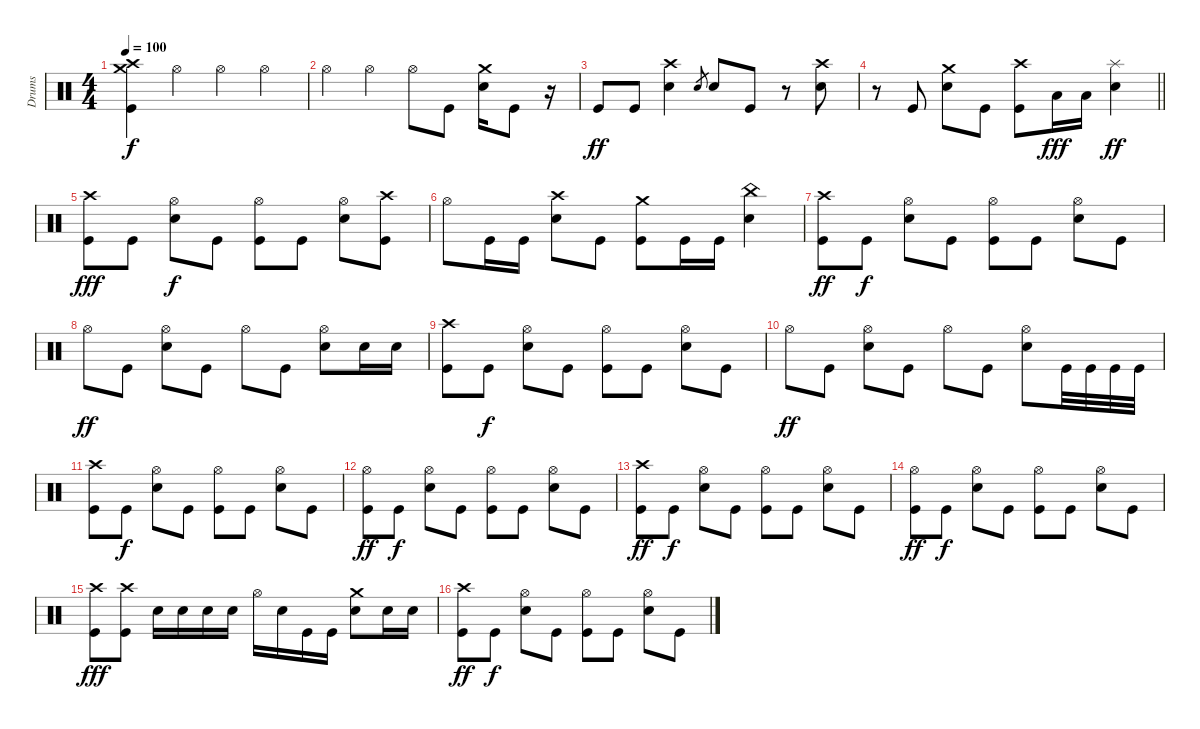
\track ("Drums" "Drums") {instrument percussion}
\staff {score}
\articulation defaults
\ts (4 4)
\tempo 100
\clef neutral
\ks c
("Crash high (hit)" "Kick (hit)" "Crash medium (hit)").4{dy f} "Hi-Hat (open)".4 "Hi-Hat (open)".4 "Hi-Hat (open)".4 |
"Hi-Hat (open)".4 "Hi-Hat (open)".4 "Hi-Hat (open)".8 "Kick (hit)".8 ("Crash medium (hit)" "Snare (hit) 2").16 "Kick (hit)".8 r.16 |
"Kick (hit)".8{dy ff} "Kick (hit)".8 ("Crash high (hit)" "Snare (hit) 2").4 "Snare (hit) 2".8{gr} "Snare (hit) 2".8 "Kick (hit)".8 r.8 ("Crash high (hit)" "Snare (hit) 2").8 |
\barLineRight lightlight
r.8 "Kick (hit)".8 ("Crash medium (hit)" "Snare (hit) 2").8 "Kick (hit)".8 ("Crash high (hit)" "Kick (hit)").8 "Low Floor Tom (hit)".16{dy fff} "Low Floor Tom (hit)".16 ("Splash (hit)" "Snare (hit) 2").4{dy ff} |
("Crash high (hit)" "Kick (hit)").8{dy fff} "Kick (hit)".8 ("Hi-Hat (open)" "Snare (hit) 2").8{dy f} "Kick (hit)".8 ("Hi-Hat (open)" "Kick (hit)").8 "Kick (hit)".8 ("Hi-Hat (open)" "Snare (hit) 2").8 ("Crash high (hit)" "Kick (hit)").8 |
"Hi-Hat (open)".8 "Kick (hit)".16 "Kick (hit)".16 ("Crash high (hit)" "Snare (hit) 2").8 "Kick (hit)".8 ("Crash medium (hit)" "Kick (hit)").8 "Kick (hit)".16 "Kick (hit)".16 ("China (hit)" "Snare (hit) 2").4 |
("Crash high (hit)" "Kick (hit)").8{dy ff} "Kick (hit)".8{dy f} ("Hi-Hat (open)" "Snare (hit) 2").8 "Kick (hit)".8 ("Hi-Hat (open)" "Kick (hit)").8 "Kick (hit)".8 ("Hi-Hat (open)" "Snare (hit) 2").8 "Kick (hit)".8 |
"Hi-Hat (open)".8{dy ff} "Kick (hit)".8 ("Hi-Hat (open)" "Snare (hit) 2").8 "Kick (hit)".8 "Hi-Hat (open)".8 "Kick (hit)".8 ("Hi-Hat (open)" "Snare (hit) 2").8 "Snare (hit) 2".16 "Snare (hit) 2".16 |
("Crash high (hit)" "Kick (hit)").8 "Kick (hit)".8{dy f} ("Hi-Hat (open)" "Snare (hit) 2").8 "Kick (hit)".8 ("Hi-Hat (open)" "Kick (hit)").8 "Kick (hit)".8 ("Hi-Hat (open)" "Snare (hit) 2").8 "Kick (hit)".8 |
"Hi-Hat (open)".8{dy ff} "Kick (hit)".8 ("Hi-Hat (open)" "Snare (hit) 2").8 "Kick (hit)".8 "Hi-Hat (open)".8 "Kick (hit)".8 ("Hi-Hat (open)" "Snare (hit) 2").8 "Kick (hit)".32 "Kick (hit)".32 "Kick (hit)".32 "Kick (hit)".32 |
("Crash high (hit)" "Kick (hit)").8 "Kick (hit)".8{dy f} ("Hi-Hat (open)" "Snare (hit) 2").8 "Kick (hit)".8 ("Hi-Hat (open)" "Kick (hit)").8 "Kick (hit)".8 ("Hi-Hat (open)" "Snare (hit) 2").8 "Kick (hit)".8 |
("Hi-Hat (open)" "Kick (hit)").8{dy ff} "Kick (hit)".8{dy f} ("Hi-Hat (open)" "Snare (hit) 2").8 "Kick (hit)".8 ("Hi-Hat (open)" "Kick (hit)").8 "Kick (hit)".8 ("Hi-Hat (open)" "Snare (hit) 2").8 "Kick (hit)".8 |
("Crash high (hit)" "Kick (hit)").8{dy ff} "Kick (hit)".8{dy f} ("Hi-Hat (open)" "Snare (hit) 2").8 "Kick (hit)".8 ("Hi-Hat (open)" "Kick (hit)").8 "Kick (hit)".8 ("Hi-Hat (open)" "Snare (hit) 2").8 "Kick (hit)".8 |
("Hi-Hat (open)" "Kick (hit)").8{dy ff} "Kick (hit)".8{dy f} ("Hi-Hat (open)" "Snare (hit) 2").8 "Kick (hit)".8 ("Hi-Hat (open)" "Kick (hit)").8 "Kick (hit)".8 ("Hi-Hat (open)" "Snare (hit) 2").8 "Kick (hit)".8 |
("Crash high (hit)" "Kick (hit)").8{dy fff} ("Crash high (hit)" "Kick (hit)").8 "Snare (hit) 2".16 "Snare (hit) 2".16 "Snare (hit) 2".16 "Snare (hit) 2".16 "Hi-Hat (open)".16 "Snare (hit) 2".16 "Kick (hit)".16 "Kick (hit)".16 ("Crash medium (hit)" "Snare (hit) 2").8 "Snare (hit) 2".16 "Snare (hit) 2".16 |
("Crash high (hit)" "Kick (hit)").8{dy ff} "Kick (hit)".8{dy f} ("Hi-Hat (open)" "Snare (hit) 2").8 "Kick (hit)".8 ("Hi-Hat (open)" "Kick (hit)").8 "Kick (hit)".8 ("Hi-Hat (open)" "Snare (hit) 2").8 "Kick (hit)".8
